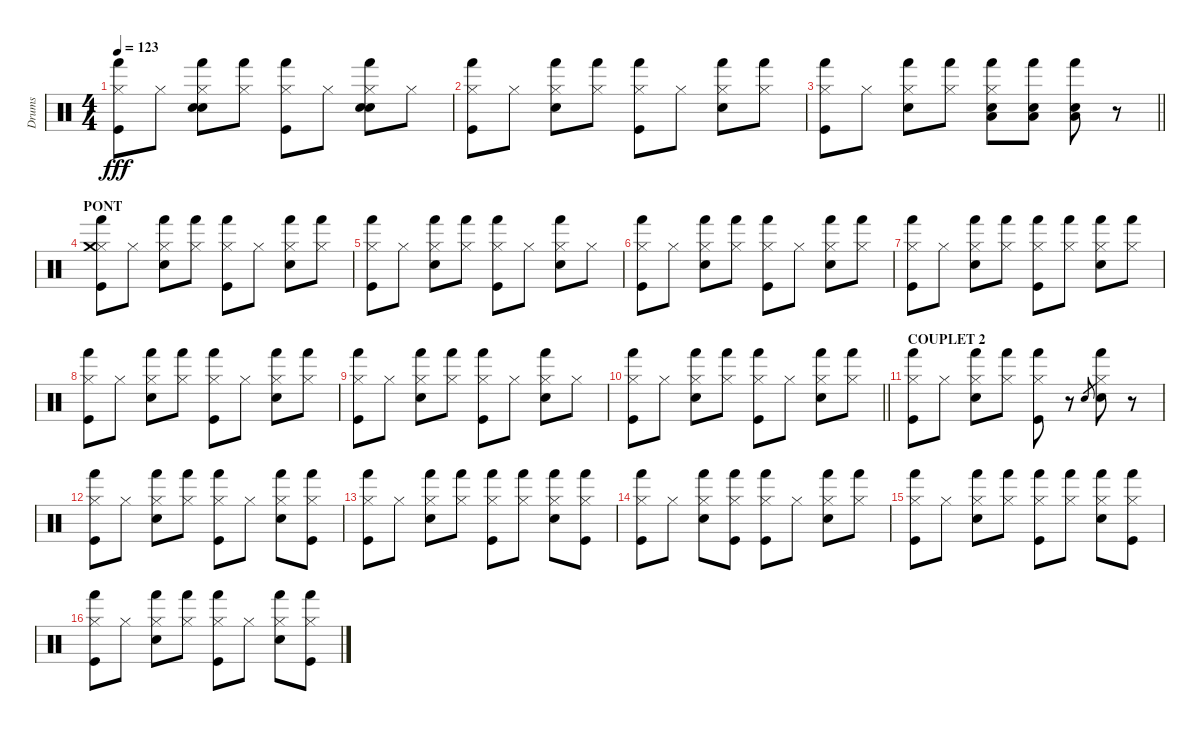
\track ("Drums" "Drums") {instrument percussion}
\staff {score}
\articulation defaults
\ts (4 4)
\tempo 123
\clef neutral
\ks c
("Hi-Hat (closed)" "Hand (hit)" "Kick (hit)").8{dy fff} "Hi-Hat (closed)".8 ("Hand Clap (hit)" "Electric Snare (hit)" "Hand (hit)" "Hi-Hat (closed)").8 ("Hi-Hat (closed)" "Hand (hit)").8 ("Hi-Hat (closed)" "Kick (hit)" "Hand (hit)").8 "Hi-Hat (closed)".8 ("Hand Clap (hit)" "Electric Snare (hit)" "Hand (hit)" "Hi-Hat (closed)").8 "Hi-Hat (closed)".8 |
("Hand (hit)" "Hi-Hat (closed)" "Kick (hit)").8 "Hi-Hat (closed)".8 ("Hand (hit)" "Hi-Hat (closed)" "Electric Snare (hit)").8 ("Hi-Hat (closed)" "Hand (hit)").8 ("Hand (hit)" "Hi-Hat (closed)" "Kick (hit)").8 "Hi-Hat (closed)".8 ("Electric Snare (hit)" "Hand (hit)" "Hi-Hat (closed)").8 ("Hi-Hat (closed)" "Hand (hit)").8 |
\barLineRight lightlight
("Hi-Hat (closed)" "Kick (hit)" "Hand (hit)").8 "Hi-Hat (closed)".8 ("Hand (hit)" "Electric Snare (hit)" "Hi-Hat (closed)").8 ("Hand (hit)" "Hi-Hat (closed)").8 ("Hi-Hat (closed)" "Electric Snare (hit)" "Low Tom (hit)" "Hand (hit)").8 ("Electric Snare (hit)" "Low Tom (hit)" "Hand (hit)").8 ("Electric Snare (hit)" "Low Tom (hit)" "Hand (hit)").8 r.8 |
\section ("" "PONT")
("Kick (hit)" "Hi-Hat (closed)" "Crash medium (hit)" "Hand (hit)").8 "Hi-Hat (closed)".8 ("Electric Snare (hit)" "Hi-Hat (closed)" "Hand (hit)").8 ("Hi-Hat (closed)" "Hand (hit)").8 ("Kick (hit)" "Hi-Hat (closed)" "Hand (hit)").8 "Hi-Hat (closed)".8 ("Hand (hit)" "Hi-Hat (closed)" "Electric Snare (hit)").8 ("Hi-Hat (closed)" "Hand (hit)").8 |
("Hi-Hat (closed)" "Hand (hit)" "Kick (hit)").8 "Hi-Hat (closed)".8 ("Hi-Hat (closed)" "Electric Snare (hit)" "Hand (hit)").8 ("Hand (hit)" "Hi-Hat (closed)").8 ("Hi-Hat (closed)" "Kick (hit)" "Hand (hit)").8 "Hi-Hat (closed)".8 ("Hi-Hat (closed)" "Electric Snare (hit)" "Hand (hit)").8 "Hi-Hat (closed)".8 |
("Hi-Hat (closed)" "Hand (hit)" "Kick (hit)").8 "Hi-Hat (closed)".8 ("Hi-Hat (closed)" "Hand (hit)" "Electric Snare (hit)").8 ("Hi-Hat (closed)" "Hand (hit)").8 ("Hi-Hat (closed)" "Kick (hit)" "Hand (hit)").8 "Hi-Hat (closed)".8 ("Hi-Hat (closed)" "Hand (hit)" "Electric Snare (hit)").8 ("Hi-Hat (closed)" "Hand (hit)").8 |
("Hi-Hat (closed)" "Kick (hit)" "Hand (hit)").8 "Hi-Hat (closed)".8 ("Hi-Hat (closed)" "Hand (hit)" "Electric Snare (hit)").8 ("Hi-Hat (closed)" "Hand (hit)").8 ("Hi-Hat (closed)" "Hand (hit)" "Kick (hit)").8 ("Hi-Hat (closed)" "Hand (hit)").8 ("Hi-Hat (closed)" "Electric Snare (hit)" "Hand (hit)").8 ("Hi-Hat (closed)" "Hand (hit)").8 |
("Hi-Hat (closed)" "Kick (hit)" "Hand (hit)").8 "Hi-Hat (closed)".8 ("Electric Snare (hit)" "Hi-Hat (closed)" "Hand (hit)").8 ("Hand (hit)" "Hi-Hat (closed)").8 ("Hi-Hat (closed)" "Kick (hit)" "Hand (hit)").8 "Hi-Hat (closed)".8 ("Hi-Hat (closed)" "Electric Snare (hit)" "Hand (hit)").8 ("Hi-Hat (closed)" "Hand (hit)").8 |
("Hi-Hat (closed)" "Hand (hit)" "Kick (hit)").8 "Hi-Hat (closed)".8 ("Hi-Hat (closed)" "Electric Snare (hit)" "Hand (hit)").8 ("Hand (hit)" "Hi-Hat (closed)").8 ("Hi-Hat (closed)" "Kick (hit)" "Hand (hit)").8 "Hi-Hat (closed)".8 ("Hi-Hat (closed)" "Electric Snare (hit)" "Hand (hit)").8 "Hi-Hat (closed)".8 |
\barLineRight lightlight
("Hi-Hat (closed)" "Hand (hit)" "Kick (hit)").8 "Hi-Hat (closed)".8 ("Hi-Hat (closed)" "Hand (hit)" "Electric Snare (hit)").8 ("Hi-Hat (closed)" "Hand (hit)").8 ("Hi-Hat (closed)" "Kick (hit)" "Hand (hit)").8 "Hi-Hat (closed)".8 ("Hi-Hat (closed)" "Hand (hit)" "Electric Snare (hit)").8 ("Hi-Hat (closed)" "Hand (hit)").8 |
\section ("" "COUPLET 2")
("Hi-Hat (closed)" "Kick (hit)" "Hand (hit)").8 "Hi-Hat (closed)".8 ("Hi-Hat (closed)" "Hand (hit)" "Electric Snare (hit)").8 ("Hi-Hat (closed)" "Hand (hit)").8 ("Hi-Hat (closed)" "Kick (hit)" "Hand (hit)").8 r.8 "Electric Snare (hit)".8{gr} ("Hi-Hat (closed)" "Electric Snare (hit)" "Hand (hit)").8 r.8 |
("Kick (hit)" "Hi-Hat (closed)" "Hand (hit)").8 "Hi-Hat (closed)".8 ("Electric Snare (hit)" "Hand (hit)" "Hi-Hat (closed)").8 ("Hi-Hat (closed)" "Hand (hit)").8 ("Hand (hit)" "Kick (hit)" "Hi-Hat (closed)").8 "Hi-Hat (closed)".8 ("Hand (hit)" "Electric Snare (hit)" "Hi-Hat (closed)").8 ("Hi-Hat (closed)" "Hand (hit)" "Kick (hit)").8 |
("Hi-Hat (closed)" "Hand (hit)" "Kick (hit)").8 "Hi-Hat (closed)".8 ("Electric Snare (hit)" "Hand (hit)" "Hi-Hat (closed)").8 ("Hi-Hat (closed)" "Hand (hit)").8 ("Hand (hit)" "Hi-Hat (closed)" "Kick (hit)").8 ("Hi-Hat (closed)" "Hand (hit)").8 ("Hand (hit)" "Electric Snare (hit)" "Hi-Hat (closed)").8 ("Hand (hit)" "Hi-Hat (closed)" "Kick (hit)").8 |
("Hi-Hat (closed)" "Hand (hit)" "Kick (hit)").8 "Hi-Hat (closed)".8 ("Electric Snare (hit)" "Hi-Hat (closed)" "Hand (hit)").8 ("Hi-Hat (closed)" "Kick (hit)" "Hand (hit)").8 ("Hi-Hat (closed)" "Hand (hit)" "Kick (hit)").8 "Hi-Hat (closed)".8 ("Electric Snare (hit)" "Hand (hit)" "Hi-Hat (closed)").8 ("Hand (hit)" "Hi-Hat (closed)").8 |
("Hi-Hat (closed)" "Hand (hit)" "Kick (hit)").8 "Hi-Hat (closed)".8 ("Hi-Hat (closed)" "Hand (hit)" "Electric Snare (hit)").8 ("Hi-Hat (closed)" "Hand (hit)").8 ("Hi-Hat (closed)" "Kick (hit)" "Hand (hit)").8 ("Hand (hit)" "Hi-Hat (closed)").8 ("Hand (hit)" "Hi-Hat (closed)" "Electric Snare (hit)").8 ("Hi-Hat (closed)" "Hand (hit)" "Kick (hit)").8 |
("Hand (hit)" "Kick (hit)" "Hi-Hat (closed)").8 "Hi-Hat (closed)".8 ("Electric Snare (hit)" "Hand (hit)" "Hi-Hat (closed)").8 ("Hand (hit)" "Hi-Hat (closed)").8 ("Hi-Hat (closed)" "Hand (hit)" "Kick (hit)").8 "Hi-Hat (closed)".8 ("Hi-Hat (closed)" "Electric Snare (hit)" "Hand (hit)").8 ("Hi-Hat (closed)" "Kick (hit)" "Hand (hit)").8
